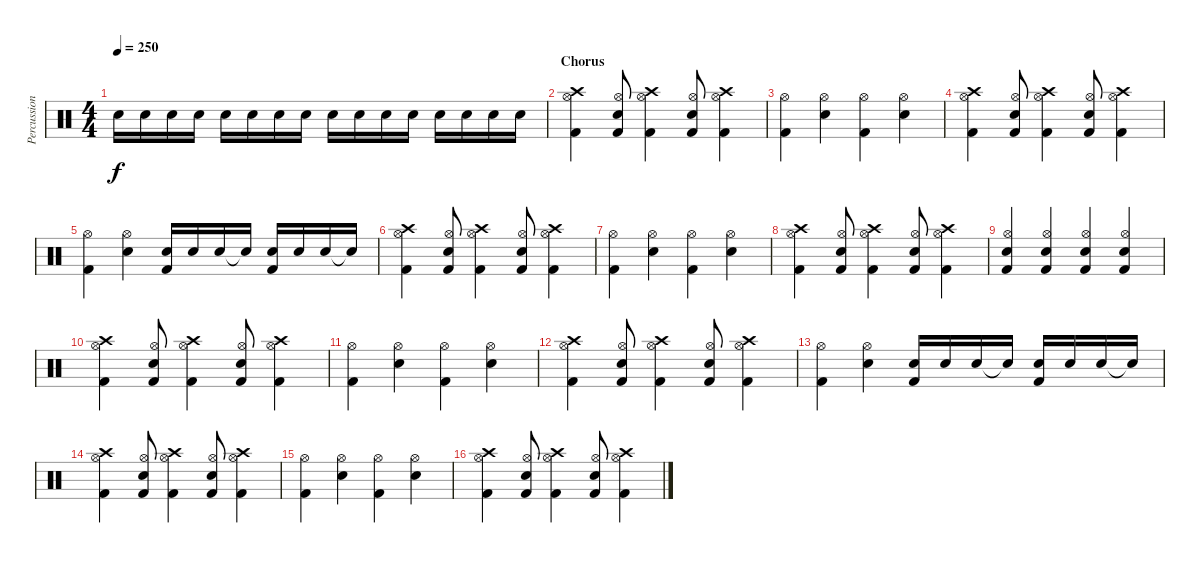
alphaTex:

\track ("Percussion" "Percussion") {instrument percussion}
\staff {score}
\articulation defaults
\ts (4 4)
\tempo 250
\clef neutral
\ks c "Electric Snare (hit)".16{dy f} "Electric Snare (hit)".16 "Electric Snare (hit)".16 "Electric Snare (hit)".16 "Electric Snare (hit)".16 "Electric Snare (hit)".16 "Electric Snare (hit)".16 "Electric Snare (hit)".16 "Electric Snare (hit)".16 "Electric Snare (hit)".16 "Electric Snare (hit)".16 "Electric Snare (hit)".16 "Electric Snare (hit)".16 "Electric Snare (hit)".16 "Electric Snare (hit)".16 "Electric Snare (hit)".16
|
\section ("" "Chorus")
("Crash high (hit)" "Hi-Hat (open)" "Kick (hit) 2").4 ("Hi-Hat (open)" "Electric Snare (hit)" "Kick (hit) 2").8 ("Crash high (hit)" "Hi-Hat (open)" "Kick (hit) 2").4 ("Hi-Hat (open)" "Electric Snare (hit)" "Kick (hit) 2").8 ("Crash high (hit)" "Hi-Hat (open)" "Kick (hit) 2").4 |
("Hi-Hat (open)" "Kick (hit) 2").4 ("Hi-Hat (open)" "Electric Snare (hit)").4 ("Hi-Hat (open)" "Kick (hit) 2").4 ("Hi-Hat (open)" "Electric Snare (hit)").4 |
("Crash high (hit)" "Hi-Hat (open)" "Kick (hit) 2").4 ("Hi-Hat (open)" "Electric Snare (hit)" "Kick (hit) 2").8 ("Crash high (hit)" "Hi-Hat (open)" "Kick (hit) 2").4 ("Hi-Hat (open)" "Electric Snare (hit)" "Kick (hit) 2").8 ("Crash high (hit)" "Hi-Hat (open)" "Kick (hit) 2").4 |
("Hi-Hat (open)" "Kick (hit) 2").4 ("Hi-Hat (open)" "Electric Snare (hit)").4 ("Electric Snare (hit)" "Kick (hit) 2").16 "Electric Snare (hit)".16 "Electric Snare (hit)".16 "Electric Snare (hit)"{t}.16 ("Electric Snare (hit)" "Kick (hit) 2").16 "Electric Snare (hit)".16 "Electric Snare (hit)".16 "Electric Snare (hit)"{t}.16 |
("Crash high (hit)" "Hi-Hat (open)" "Kick (hit) 2").4 ("Hi-Hat (open)" "Electric Snare (hit)" "Kick (hit) 2").8 ("Crash high (hit)" "Hi-Hat (open)" "Kick (hit) 2").4 ("Hi-Hat (open)" "Electric Snare (hit)" "Kick (hit) 2").8 ("Crash high (hit)" "Hi-Hat (open)" "Kick (hit) 2").4 |
("Hi-Hat (open)" "Kick (hit) 2").4 ("Hi-Hat (open)" "Electric Snare (hit)").4 ("Hi-Hat (open)" "Kick (hit) 2").4 ("Hi-Hat (open)" "Electric Snare (hit)").4 |
("Crash high (hit)" "Hi-Hat (open)" "Kick (hit) 2").4 ("Hi-Hat (open)" "Electric Snare (hit)" "Kick (hit) 2").8 ("Crash high (hit)" "Hi-Hat (open)" "Kick (hit) 2").4 ("Hi-Hat (open)" "Electric Snare (hit)" "Kick (hit) 2").8 ("Crash high (hit)" "Hi-Hat (open)" "Kick (hit) 2").4 |
("Hi-Hat (open)" "Electric Snare (hit)" "Kick (hit) 2").4 ("Hi-Hat (open)" "Electric Snare (hit)" "Kick (hit) 2").4 ("Hi-Hat (open)" "Electric Snare (hit)" "Kick (hit) 2").4 ("Hi-Hat (open)" "Electric Snare (hit)" "Kick (hit) 2").4 |
("Crash high (hit)" "Hi-Hat (open)" "Kick (hit) 2").4 ("Hi-Hat (open)" "Electric Snare (hit)" "Kick (hit) 2").8 ("Crash high (hit)" "Hi-Hat (open)" "Kick (hit) 2").4 ("Hi-Hat (open)" "Electric Snare (hit)" "Kick (hit) 2").8 ("Crash high (hit)" "Hi-Hat (open)" "Kick (hit) 2").4 |
("Hi-Hat (open)" "Kick (hit) 2").4 ("Hi-Hat (open)" "Electric Snare (hit)").4 ("Hi-Hat (open)" "Kick (hit) 2").4 ("Hi-Hat (open)" "Electric Snare (hit)").4 |
("Crash high (hit)" "Hi-Hat (open)" "Kick (hit) 2").4 ("Hi-Hat (open)" "Electric Snare (hit)" "Kick (hit) 2").8 ("Crash high (hit)" "Hi-Hat (open)" "Kick (hit) 2").4 ("Hi-Hat (open)" "Electric Snare (hit)" "Kick (hit) 2").8 ("Crash high (hit)" "Hi-Hat (open)" "Kick (hit) 2").4 |
("Hi-Hat (open)" "Kick (hit) 2").4 ("Hi-Hat (open)" "Electric Snare (hit)").4 ("Electric Snare (hit)" "Kick (hit) 2").16 "Electric Snare (hit)".16 "Electric Snare (hit)".16 "Electric Snare (hit)"{t}.16 ("Electric Snare (hit)" "Kick (hit) 2").16 "Electric Snare (hit)".16 "Electric Snare (hit)".16 "Electric Snare (hit)"{t}.16 |
("Crash high (hit)" "Hi-Hat (open)" "Kick (hit) 2").4 ("Hi-Hat (open)" "Electric Snare (hit)" "Kick (hit) 2").8 ("Crash high (hit)" "Hi-Hat (open)" "Kick (hit) 2").4 ("Hi-Hat (open)" "Electric Snare (hit)" "Kick (hit) 2").8 ("Crash high (hit)" "Hi-Hat (open)" "Kick (hit) 2").4 |
("Hi-Hat (open)" "Kick (hit) 2").4 ("Hi-Hat (open)" "Electric Snare (hit)").4 ("Hi-Hat (open)" "Kick (hit) 2").4 ("Hi-Hat (open)" "Electric Snare (hit)").4 |
("Crash high (hit)" "Hi-Hat (open)" "Kick (hit) 2").4 ("Hi-Hat (open)" "Electric Snare (hit)" "Kick (hit) 2").8 ("Crash high (hit)" "Hi-Hat (open)" "Kick (hit) 2").4 ("Hi-Hat (open)" "Electric Snare (hit)" "Kick (hit) 2").8 ("Crash high (hit)" "Hi-Hat (open)" "Kick (hit) 2").4
